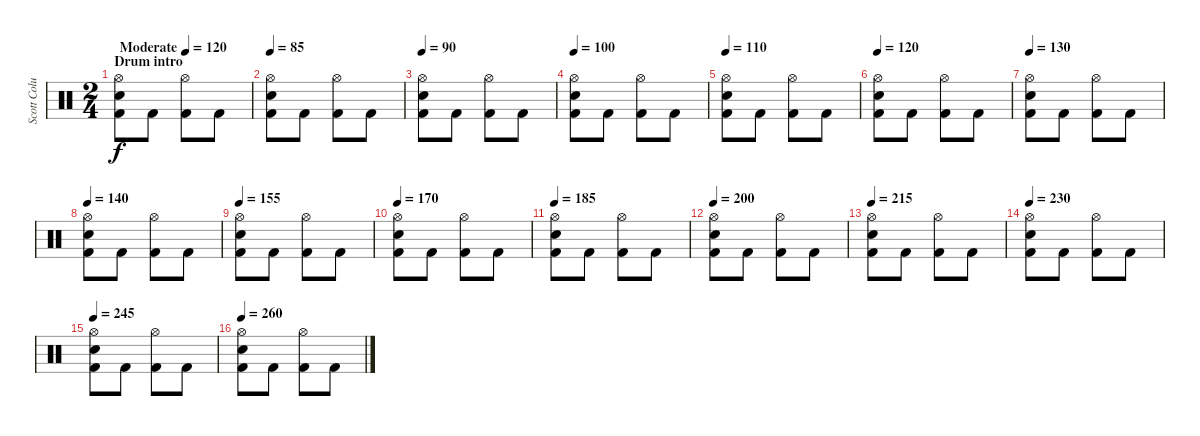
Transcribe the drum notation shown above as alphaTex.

\track ("Scott Columbus" "Scott Colu") {instrument percussion}
\staff {score}
\articulation defaults
\ts (2 4)
\section ("" "Drum intro")
\tempo (120 "Moderate")
\tempo 80
\tempo (120 "Moderate")
\clef neutral
\ks c
("Hi-Hat (open)" "Snare (hit) 2" "Kick (hit) 2").8{dy f} "Kick (hit) 2".8 ("Hi-Hat (open)" "Kick (hit) 2").8 "Kick (hit) 2".8 |
\tempo 85
("Hi-Hat (open)" "Snare (hit) 2" "Kick (hit) 2").8 "Kick (hit) 2".8 ("Hi-Hat (open)" "Kick (hit) 2").8 "Kick (hit) 2".8 |
\tempo 90
("Hi-Hat (open)" "Snare (hit) 2" "Kick (hit) 2").8 "Kick (hit) 2".8 ("Hi-Hat (open)" "Kick (hit) 2").8 "Kick (hit) 2".8 |
\tempo 100
("Hi-Hat (open)" "Snare (hit) 2" "Kick (hit) 2").8 "Kick (hit) 2".8 ("Hi-Hat (open)" "Kick (hit) 2").8 "Kick (hit) 2".8 |
\tempo 110
("Hi-Hat (open)" "Snare (hit) 2" "Kick (hit) 2").8 "Kick (hit) 2".8 ("Hi-Hat (open)" "Kick (hit) 2").8 "Kick (hit) 2".8 |
\tempo 120
("Hi-Hat (open)" "Snare (hit) 2" "Kick (hit) 2").8 "Kick (hit) 2".8 ("Hi-Hat (open)" "Kick (hit) 2").8 "Kick (hit) 2".8 |
\tempo 130
("Hi-Hat (open)" "Snare (hit) 2" "Kick (hit) 2").8 "Kick (hit) 2".8 ("Hi-Hat (open)" "Kick (hit) 2").8 "Kick (hit) 2".8 |
\tempo 140
("Hi-Hat (open)" "Snare (hit) 2" "Kick (hit) 2").8 "Kick (hit) 2".8 ("Hi-Hat (open)" "Kick (hit) 2").8 "Kick (hit) 2".8 |
\tempo 155
("Hi-Hat (open)" "Snare (hit) 2" "Kick (hit) 2").8 "Kick (hit) 2".8 ("Hi-Hat (open)" "Kick (hit) 2").8 "Kick (hit) 2".8 |
\tempo 170
("Hi-Hat (open)" "Snare (hit) 2" "Kick (hit) 2").8 "Kick (hit) 2".8 ("Hi-Hat (open)" "Kick (hit) 2").8 "Kick (hit) 2".8 |
\tempo 185
("Hi-Hat (open)" "Snare (hit) 2" "Kick (hit) 2").8 "Kick (hit) 2".8 ("Hi-Hat (open)" "Kick (hit) 2").8 "Kick (hit) 2".8 |
\tempo 200
("Hi-Hat (open)" "Snare (hit) 2" "Kick (hit) 2").8 "Kick (hit) 2".8 ("Hi-Hat (open)" "Kick (hit) 2").8 "Kick (hit) 2".8 |
\tempo 215
("Hi-Hat (open)" "Snare (hit) 2" "Kick (hit) 2").8 "Kick (hit) 2".8 ("Hi-Hat (open)" "Kick (hit) 2").8 "Kick (hit) 2".8 |
\tempo 230
("Hi-Hat (open)" "Snare (hit) 2" "Kick (hit) 2").8 "Kick (hit) 2".8 ("Hi-Hat (open)" "Kick (hit) 2").8 "Kick (hit) 2".8 |
\tempo 245
("Hi-Hat (open)" "Snare (hit) 2" "Kick (hit) 2").8 "Kick (hit) 2".8 ("Hi-Hat (open)" "Kick (hit) 2").8 "Kick (hit) 2".8 |
\tempo 260
("Hi-Hat (open)" "Snare (hit) 2" "Kick (hit) 2").8 "Kick (hit) 2".8 ("Hi-Hat (open)" "Kick (hit) 2").8 "Kick (hit) 2".8
